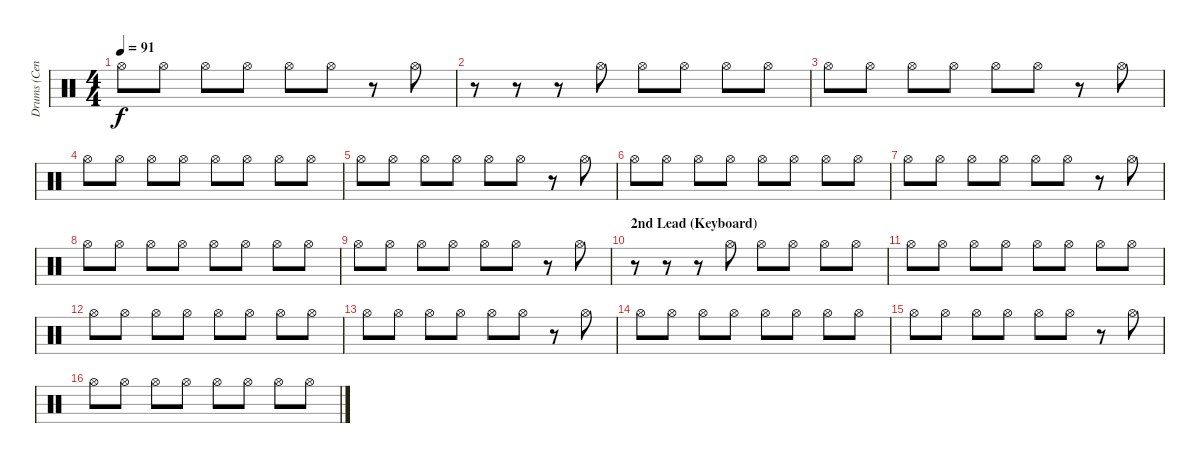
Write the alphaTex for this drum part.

\track ("Drums (Cenk)" "Drums (Cen") {instrument percussion}
\staff {score}
\articulation defaults
\ts (4 4)
\tempo 91
\clef neutral
\ks c "Hi-Hat (open)".8{dy f} "Hi-Hat (open)".8 "Hi-Hat (open)".8 "Hi-Hat (open)".8 "Hi-Hat (open)".8 "Hi-Hat (open)".8
r.8 "Hi-Hat (open)".8 |
r.8 r.8 r.8 "Hi-Hat (open)".8 "Hi-Hat (open)".8 "Hi-Hat (open)".8 "Hi-Hat (open)".8 "Hi-Hat (open)".8 |
"Hi-Hat (open)".8 "Hi-Hat (open)".8 "Hi-Hat (open)".8 "Hi-Hat (open)".8 "Hi-Hat (open)".8 "Hi-Hat (open)".8 r.8 "Hi-Hat (open)".8 |
"Hi-Hat (open)".8 "Hi-Hat (open)".8 "Hi-Hat (open)".8 "Hi-Hat (open)".8 "Hi-Hat (open)".8 "Hi-Hat (open)".8 "Hi-Hat (open)".8 "Hi-Hat (open)".8 |
"Hi-Hat (open)".8 "Hi-Hat (open)".8 "Hi-Hat (open)".8 "Hi-Hat (open)".8 "Hi-Hat (open)".8 "Hi-Hat (open)".8 r.8 "Hi-Hat (open)".8 |
"Hi-Hat (open)".8 "Hi-Hat (open)".8 "Hi-Hat (open)".8 "Hi-Hat (open)".8 "Hi-Hat (open)".8 "Hi-Hat (open)".8 "Hi-Hat (open)".8 "Hi-Hat (open)".8 |
"Hi-Hat (open)".8 "Hi-Hat (open)".8 "Hi-Hat (open)".8 "Hi-Hat (open)".8 "Hi-Hat (open)".8 "Hi-Hat (open)".8 r.8 "Hi-Hat (open)".8 |
"Hi-Hat (open)".8 "Hi-Hat (open)".8 "Hi-Hat (open)".8 "Hi-Hat (open)".8 "Hi-Hat (open)".8 "Hi-Hat (open)".8 "Hi-Hat (open)".8 "Hi-Hat (open)".8 |
"Hi-Hat (open)".8 "Hi-Hat (open)".8 "Hi-Hat (open)".8 "Hi-Hat (open)".8 "Hi-Hat (open)".8 "Hi-Hat (open)".8 r.8 "Hi-Hat (open)".8 |
\section ("" "2nd Lead (Keyboard)")
r.8 r.8 r.8 "Hi-Hat (open)".8 "Hi-Hat (open)".8 "Hi-Hat (open)".8 "Hi-Hat (open)".8 "Hi-Hat (open)".8 |
"Hi-Hat (open)".8 "Hi-Hat (open)".8 "Hi-Hat (open)".8 "Hi-Hat (open)".8 "Hi-Hat (open)".8 "Hi-Hat (open)".8 "Hi-Hat (open)".8 "Hi-Hat (open)".8 |
"Hi-Hat (open)".8 "Hi-Hat (open)".8 "Hi-Hat (open)".8 "Hi-Hat (open)".8 "Hi-Hat (open)".8 "Hi-Hat (open)".8 "Hi-Hat (open)".8 "Hi-Hat (open)".8 |
"Hi-Hat (open)".8 "Hi-Hat (open)".8 "Hi-Hat (open)".8 "Hi-Hat (open)".8 "Hi-Hat (open)".8 "Hi-Hat (open)".8 r.8 "Hi-Hat (open)".8 |
"Hi-Hat (open)".8 "Hi-Hat (open)".8 "Hi-Hat (open)".8 "Hi-Hat (open)".8 "Hi-Hat (open)".8 "Hi-Hat (open)".8 "Hi-Hat (open)".8 "Hi-Hat (open)".8 |
"Hi-Hat (open)".8 "Hi-Hat (open)".8 "Hi-Hat (open)".8 "Hi-Hat (open)".8 "Hi-Hat (open)".8 "Hi-Hat (open)".8 r.8 "Hi-Hat (open)".8 |
"Hi-Hat (open)".8 "Hi-Hat (open)".8 "Hi-Hat (open)".8 "Hi-Hat (open)".8 "Hi-Hat (open)".8 "Hi-Hat (open)".8 "Hi-Hat (open)".8 "Hi-Hat (open)".8
